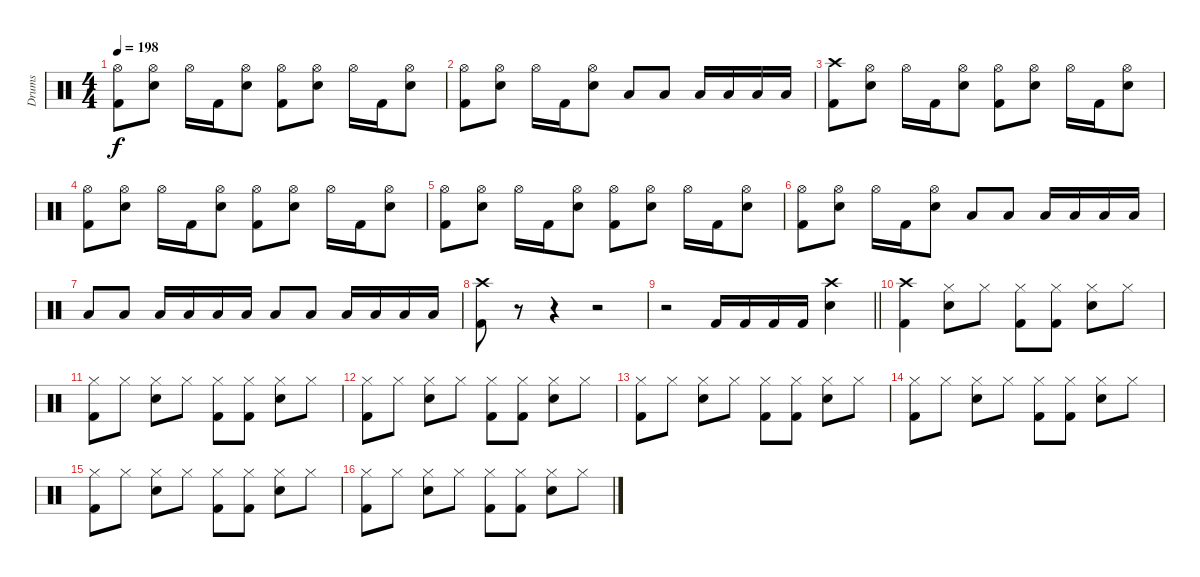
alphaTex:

\track ("Drums" "Drums") {instrument percussion}
\staff {score}
\articulation defaults
\ts (4 4)
\tempo 198
\clef neutral
\ks c
("Hi-Hat (open)" "Kick (hit) 2").8{dy f} ("Hi-Hat (open)" "Snare (hit) 2").8 "Hi-Hat (open)".16 "Kick (hit) 2".16 ("Hi-Hat (open)" "Snare (hit) 2").8 ("Hi-Hat (open)" "Kick (hit) 2").8 ("Hi-Hat (open)" "Snare (hit) 2").8 "Hi-Hat (open)".16 "Kick (hit) 2".16 ("Hi-Hat (open)" "Snare (hit) 2").8 |
("Hi-Hat (open)" "Kick (hit) 2").8 ("Hi-Hat (open)" "Snare (hit) 2").8 "Hi-Hat (open)".16 "Kick (hit) 2".16 ("Hi-Hat (open)" "Snare (hit) 2").8 "Low Floor Tom (hit)".8 "Low Floor Tom (hit)".8 "Low Floor Tom (hit)".16 "Low Floor Tom (hit)".16 "Low Floor Tom (hit)".16 "Low Floor Tom (hit)".16 |
("Crash high (hit)" "Kick (hit) 2").8 ("Hi-Hat (open)" "Snare (hit) 2").8 "Hi-Hat (open)".16 "Kick (hit) 2".16 ("Hi-Hat (open)" "Snare (hit) 2").8 ("Hi-Hat (open)" "Kick (hit) 2").8 ("Hi-Hat (open)" "Snare (hit) 2").8 "Hi-Hat (open)".16 "Kick (hit) 2".16 ("Hi-Hat (open)" "Snare (hit) 2").8 |
("Hi-Hat (open)" "Kick (hit) 2").8 ("Hi-Hat (open)" "Snare (hit) 2").8 "Hi-Hat (open)".16 "Kick (hit) 2".16 ("Hi-Hat (open)" "Snare (hit) 2").8 ("Hi-Hat (open)" "Kick (hit) 2").8 ("Hi-Hat (open)" "Snare (hit) 2").8 "Hi-Hat (open)".16 "Kick (hit) 2".16 ("Hi-Hat (open)" "Snare (hit) 2").8 |
("Hi-Hat (open)" "Kick (hit) 2").8 ("Hi-Hat (open)" "Snare (hit) 2").8 "Hi-Hat (open)".16 "Kick (hit) 2".16 ("Hi-Hat (open)" "Snare (hit) 2").8 ("Hi-Hat (open)" "Kick (hit) 2").8 ("Hi-Hat (open)" "Snare (hit) 2").8 "Hi-Hat (open)".16 "Kick (hit) 2".16 ("Hi-Hat (open)" "Snare (hit) 2").8 |
("Hi-Hat (open)" "Kick (hit) 2").8 ("Hi-Hat (open)" "Snare (hit) 2").8 "Hi-Hat (open)".16 "Kick (hit) 2".16 ("Hi-Hat (open)" "Snare (hit) 2").8 "Low Floor Tom (hit)".8 "Low Floor Tom (hit)".8 "Low Floor Tom (hit)".16 "Low Floor Tom (hit)".16 "Low Floor Tom (hit)".16 "Low Floor Tom (hit)".16 |
"Low Floor Tom (hit)".8 "Low Floor Tom (hit)".8 "Low Floor Tom (hit)".16 "Low Floor Tom (hit)".16 "Low Floor Tom (hit)".16 "Low Floor Tom (hit)".16 "Low Floor Tom (hit)".8 "Low Floor Tom (hit)".8 "Low Floor Tom (hit)".16 "Low Floor Tom (hit)".16 "Low Floor Tom (hit)".16 "Low Floor Tom (hit)".16 |
("Crash high (hit)" "Kick (hit) 2").8 r.8 r.4 r.2 |
\barLineRight lightlight
r.2 "Kick (hit) 2".16 "Kick (hit) 2".16 "Kick (hit) 2".16 "Kick (hit) 2".16 ("Crash high (hit)" "Snare (hit) 2").4 |
("Crash high (hit)" "Kick (hit) 2").4 ("Hi-Hat (closed)" "Snare (hit) 2").8 "Hi-Hat (closed)".8 ("Hi-Hat (closed)" "Kick (hit) 2").8 ("Hi-Hat (closed)" "Kick (hit) 2").8 ("Hi-Hat (closed)" "Snare (hit) 2").8 "Hi-Hat (closed)".8 |
("Hi-Hat (closed)" "Kick (hit) 2").8 "Hi-Hat (closed)".8 ("Hi-Hat (closed)" "Snare (hit) 2").8 "Hi-Hat (closed)".8 ("Hi-Hat (closed)" "Kick (hit) 2").8 ("Hi-Hat (closed)" "Kick (hit) 2").8 ("Hi-Hat (closed)" "Snare (hit) 2").8 "Hi-Hat (closed)".8 |
("Hi-Hat (closed)" "Kick (hit) 2").8 "Hi-Hat (closed)".8 ("Hi-Hat (closed)" "Snare (hit) 2").8 "Hi-Hat (closed)".8 ("Hi-Hat (closed)" "Kick (hit) 2").8 ("Hi-Hat (closed)" "Kick (hit) 2").8 ("Hi-Hat (closed)" "Snare (hit) 2").8 "Hi-Hat (closed)".8 |
("Hi-Hat (closed)" "Kick (hit) 2").8 "Hi-Hat (closed)".8 ("Hi-Hat (closed)" "Snare (hit) 2").8 "Hi-Hat (closed)".8 ("Hi-Hat (closed)" "Kick (hit) 2").8 ("Hi-Hat (closed)" "Kick (hit) 2").8 ("Hi-Hat (closed)" "Snare (hit) 2").8 "Hi-Hat (closed)".8 |
("Hi-Hat (closed)" "Kick (hit) 2").8 "Hi-Hat (closed)".8 ("Hi-Hat (closed)" "Snare (hit) 2").8 "Hi-Hat (closed)".8 ("Hi-Hat (closed)" "Kick (hit) 2").8 ("Hi-Hat (closed)" "Kick (hit) 2").8 ("Hi-Hat (closed)" "Snare (hit) 2").8 "Hi-Hat (closed)".8 |
("Hi-Hat (closed)" "Kick (hit) 2").8 "Hi-Hat (closed)".8 ("Hi-Hat (closed)" "Snare (hit) 2").8 "Hi-Hat (closed)".8 ("Hi-Hat (closed)" "Kick (hit) 2").8 ("Hi-Hat (closed)" "Kick (hit) 2").8 ("Hi-Hat (closed)" "Snare (hit) 2").8 "Hi-Hat (closed)".8 |
("Hi-Hat (closed)" "Kick (hit) 2").8 "Hi-Hat (closed)".8 ("Hi-Hat (closed)" "Snare (hit) 2").8 "Hi-Hat (closed)".8 ("Hi-Hat (closed)" "Kick (hit) 2").8 ("Hi-Hat (closed)" "Kick (hit) 2").8 ("Hi-Hat (closed)" "Snare (hit) 2").8 "Hi-Hat (closed)".8
